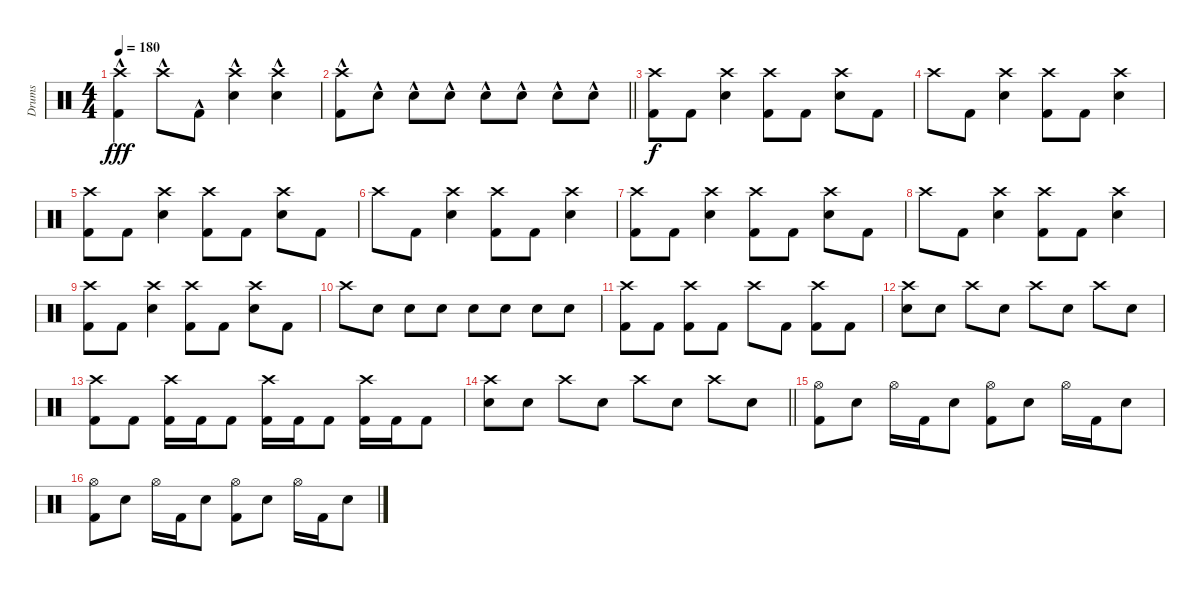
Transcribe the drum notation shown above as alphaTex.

\track ("Drums" "Drums") {instrument percussion}
\staff {score}
\articulation defaults
\ts (4 4)
\tempo 180
\clef neutral
\ks c
("Crash high (hit)" "Kick (hit) 2"{hac}).4{dy fff} "Crash high (hit)"{hac}.8 "Kick (hit) 2"{hac}.8 ("Crash high (hit)" "Snare (hit) 2"{hac}).4 ("Crash high (hit)" "Snare (hit) 2"{hac}).4 |
\barLineRight lightlight
("Crash high (hit)" "Kick (hit) 2"{hac}).8 "Snare (hit) 2"{hac}.8 "Snare (hit) 2"{hac}.8 "Snare (hit) 2"{hac}.8 "Snare (hit) 2"{hac}.8 "Snare (hit) 2"{hac}.8 "Snare (hit) 2"{hac}.8 "Snare (hit) 2"{hac}.8 |
("Crash high (hit)" "Kick (hit) 2").8{dy f} "Kick (hit) 2".8 ("Crash high (hit)" "Snare (hit) 2").4 ("Crash high (hit)" "Kick (hit) 2").8 "Kick (hit) 2".8 ("Crash high (hit)" "Snare (hit) 2").8 "Kick (hit) 2".8 |
"Crash high (hit)".8 "Kick (hit) 2".8 ("Crash high (hit)" "Snare (hit) 2").4 ("Crash high (hit)" "Kick (hit) 2").8 "Kick (hit) 2".8 ("Crash high (hit)" "Snare (hit) 2").4 |
("Crash high (hit)" "Kick (hit) 2").8 "Kick (hit) 2".8 ("Crash high (hit)" "Snare (hit) 2").4 ("Crash high (hit)" "Kick (hit) 2").8 "Kick (hit) 2".8 ("Crash high (hit)" "Snare (hit) 2").8 "Kick (hit) 2".8 |
"Crash high (hit)".8 "Kick (hit) 2".8 ("Crash high (hit)" "Snare (hit) 2").4 ("Crash high (hit)" "Kick (hit) 2").8 "Kick (hit) 2".8 ("Crash high (hit)" "Snare (hit) 2").4 |
("Crash high (hit)" "Kick (hit) 2").8 "Kick (hit) 2".8 ("Crash high (hit)" "Snare (hit) 2").4 ("Crash high (hit)" "Kick (hit) 2").8 "Kick (hit) 2".8 ("Crash high (hit)" "Snare (hit) 2").8 "Kick (hit) 2".8 |
"Crash high (hit)".8 "Kick (hit) 2".8 ("Crash high (hit)" "Snare (hit) 2").4 ("Crash high (hit)" "Kick (hit) 2").8 "Kick (hit) 2".8 ("Crash high (hit)" "Snare (hit) 2").4 |
("Crash high (hit)" "Kick (hit) 2").8 "Kick (hit) 2".8 ("Crash high (hit)" "Snare (hit) 2").4 ("Crash high (hit)" "Kick (hit) 2").8 "Kick (hit) 2".8 ("Crash high (hit)" "Snare (hit) 2").8 "Kick (hit) 2".8 |
"Crash high (hit)".8 "Snare (hit) 2".8 "Snare (hit) 2".8 "Snare (hit) 2".8 "Snare (hit) 2".8 "Snare (hit) 2".8 "Snare (hit) 2".8 "Snare (hit) 2".8 |
("Crash high (hit)" "Kick (hit) 2").8 "Kick (hit) 2".8 ("Crash high (hit)" "Kick (hit) 2").8 "Kick (hit) 2".8 "Crash high (hit)".8 "Kick (hit) 2".8 ("Crash high (hit)" "Kick (hit) 2").8 "Kick (hit) 2".8 |
("Crash high (hit)" "Snare (hit) 2").8 "Snare (hit) 2".8 "Crash high (hit)".8 "Snare (hit) 2".8 "Crash high (hit)".8 "Snare (hit) 2".8 "Crash high (hit)".8 "Snare (hit) 2".8 |
("Crash high (hit)" "Kick (hit) 2").8 "Kick (hit) 2".8 ("Crash high (hit)" "Kick (hit) 2").16 "Kick (hit) 2".16 "Kick (hit) 2".8 ("Crash high (hit)" "Kick (hit) 2").16 "Kick (hit) 2".16 "Kick (hit) 2".8 ("Crash high (hit)" "Kick (hit) 2").16 "Kick (hit) 2".16 "Kick (hit) 2".8 |
\barLineRight lightlight
("Crash high (hit)" "Snare (hit) 2").8 "Snare (hit) 2".8 "Crash high (hit)".8 "Snare (hit) 2".8 "Crash high (hit)".8 "Snare (hit) 2".8 "Crash high (hit)".8 "Snare (hit) 2".8 |
("Hi-Hat (open)" "Kick (hit) 2").8 "Snare (hit) 2".8 "Hi-Hat (open)".16 "Kick (hit) 2".16 "Snare (hit) 2".8 ("Hi-Hat (open)" "Kick (hit) 2").8 "Snare (hit) 2".8 "Hi-Hat (open)".16 "Kick (hit) 2".16 "Snare (hit) 2".8 |
("Hi-Hat (open)" "Kick (hit) 2").8 "Snare (hit) 2".8 "Hi-Hat (open)".16 "Kick (hit) 2".16 "Snare (hit) 2".8 ("Hi-Hat (open)" "Kick (hit) 2").8 "Snare (hit) 2".8 "Hi-Hat (open)".16 "Kick (hit) 2".16 "Snare (hit) 2".8
